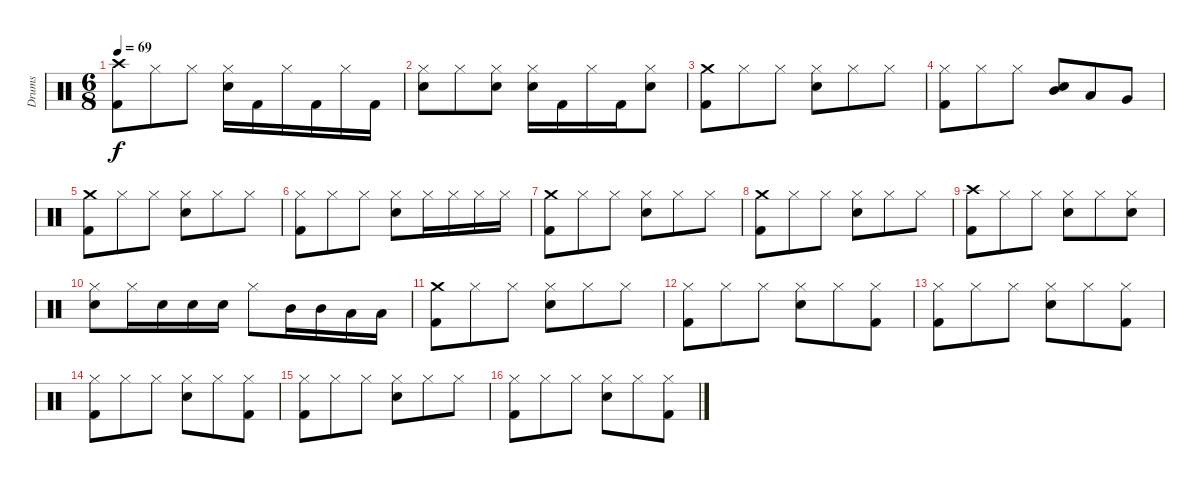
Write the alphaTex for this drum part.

\track ("Drums" "Drums") {instrument percussion}
\staff {score}
\articulation defaults
\ts (6 8)
\tempo 69
\clef neutral
\ks c
("Crash high (hit)" "Kick (hit) 2").8{dy f} "Hi-Hat (closed)".8 "Hi-Hat (closed)".8 ("Hi-Hat (closed)" "Snare (hit) 2").16 "Kick (hit) 2".16 "Hi-Hat (closed)".16 "Kick (hit) 2".16 "Hi-Hat (closed)".16 "Kick (hit) 2".16 |
("Hi-Hat (closed)" "Snare (hit) 2").8 "Hi-Hat (closed)".8 ("Hi-Hat (closed)" "Snare (hit) 2").8 ("Hi-Hat (closed)" "Snare (hit) 2").16 "Kick (hit) 2".16 "Hi-Hat (closed)".16 "Kick (hit) 2".16 ("Hi-Hat (closed)" "Snare (hit) 2").8 |
("Crash medium (hit)" "Kick (hit) 2").8 "Hi-Hat (closed)".8 "Hi-Hat (closed)".8 ("Hi-Hat (closed)" "Snare (hit) 2").8 "Hi-Hat (closed)".8 "Hi-Hat (closed)".8 |
("Hi-Hat (closed)" "Kick (hit) 2").8 "Hi-Hat (closed)".8 "Hi-Hat (closed)".8 ("Snare (hit) 2" "Mid Tom (hit)").8 "Low Tom (hit)".8 "Very Low Tom (hit)".8 |
("Crash medium (hit)" "Kick (hit) 2").8 "Hi-Hat (closed)".8 "Hi-Hat (closed)".8 ("Hi-Hat (closed)" "Snare (hit) 2").8 "Hi-Hat (closed)".8 "Hi-Hat (closed)".8 |
("Hi-Hat (closed)" "Kick (hit) 2").8 "Hi-Hat (closed)".8 "Hi-Hat (closed)".8 ("Hi-Hat (closed)" "Snare (hit) 2").8 "Hi-Hat (closed)".16 "Hi-Hat (closed)".16 "Hi-Hat (closed)".16 "Hi-Hat (closed)".16 |
("Crash medium (hit)" "Kick (hit) 2").8 "Hi-Hat (closed)".8 "Hi-Hat (closed)".8 ("Hi-Hat (closed)" "Snare (hit) 2").8 "Hi-Hat (closed)".8 "Hi-Hat (closed)".8 |
("Crash medium (hit)" "Kick (hit) 2").8 "Hi-Hat (closed)".8 "Hi-Hat (closed)".8 ("Hi-Hat (closed)" "Snare (hit) 2").8 "Hi-Hat (closed)".8 "Hi-Hat (closed)".8 |
("Crash high (hit)" "Kick (hit) 2").8 "Hi-Hat (closed)".8 "Hi-Hat (closed)".8 ("Hi-Hat (closed)" "Snare (hit) 2").8 "Hi-Hat (closed)".8 ("Hi-Hat (closed)" "Snare (hit) 2").8 |
("Hi-Hat (closed)" "Snare (hit) 2").8 "Hi-Hat (closed)".16 "Snare (hit) 2".16 "Snare (hit) 2".16 "Snare (hit) 2".16 "Hi-Hat (closed)".8 "Mid Tom (hit)".16 "Mid Tom (hit)".16 "Low Tom (hit)".16 "Low Tom (hit)".16 |
("Crash medium (hit)" "Kick (hit) 2").8 "Hi-Hat (closed)".8 "Hi-Hat (closed)".8 ("Hi-Hat (closed)" "Snare (hit) 2").8 "Hi-Hat (closed)".8 "Hi-Hat (closed)".8 |
("Hi-Hat (closed)" "Kick (hit) 2").8 "Hi-Hat (closed)".8 "Hi-Hat (closed)".8 ("Hi-Hat (closed)" "Snare (hit) 2").8 "Hi-Hat (closed)".8 ("Hi-Hat (closed)" "Kick (hit) 2").8 |
("Hi-Hat (closed)" "Kick (hit) 2").8 "Hi-Hat (closed)".8 "Hi-Hat (closed)".8 ("Hi-Hat (closed)" "Snare (hit) 2").8 "Hi-Hat (closed)".8 ("Hi-Hat (closed)" "Kick (hit) 2").8 |
("Hi-Hat (closed)" "Kick (hit) 2").8 "Hi-Hat (closed)".8 "Hi-Hat (closed)".8 ("Hi-Hat (closed)" "Snare (hit) 2").8 "Hi-Hat (closed)".8 ("Hi-Hat (closed)" "Kick (hit) 2").8 |
("Hi-Hat (closed)" "Kick (hit) 2").8 "Hi-Hat (closed)".8 "Hi-Hat (closed)".8 ("Hi-Hat (closed)" "Snare (hit) 2").8 "Hi-Hat (closed)".8 "Hi-Hat (closed)".8 |
("Hi-Hat (closed)" "Kick (hit) 2").8 "Hi-Hat (closed)".8 "Hi-Hat (closed)".8 ("Hi-Hat (closed)" "Snare (hit) 2").8 "Hi-Hat (closed)".8 ("Hi-Hat (closed)" "Kick (hit) 2").8
